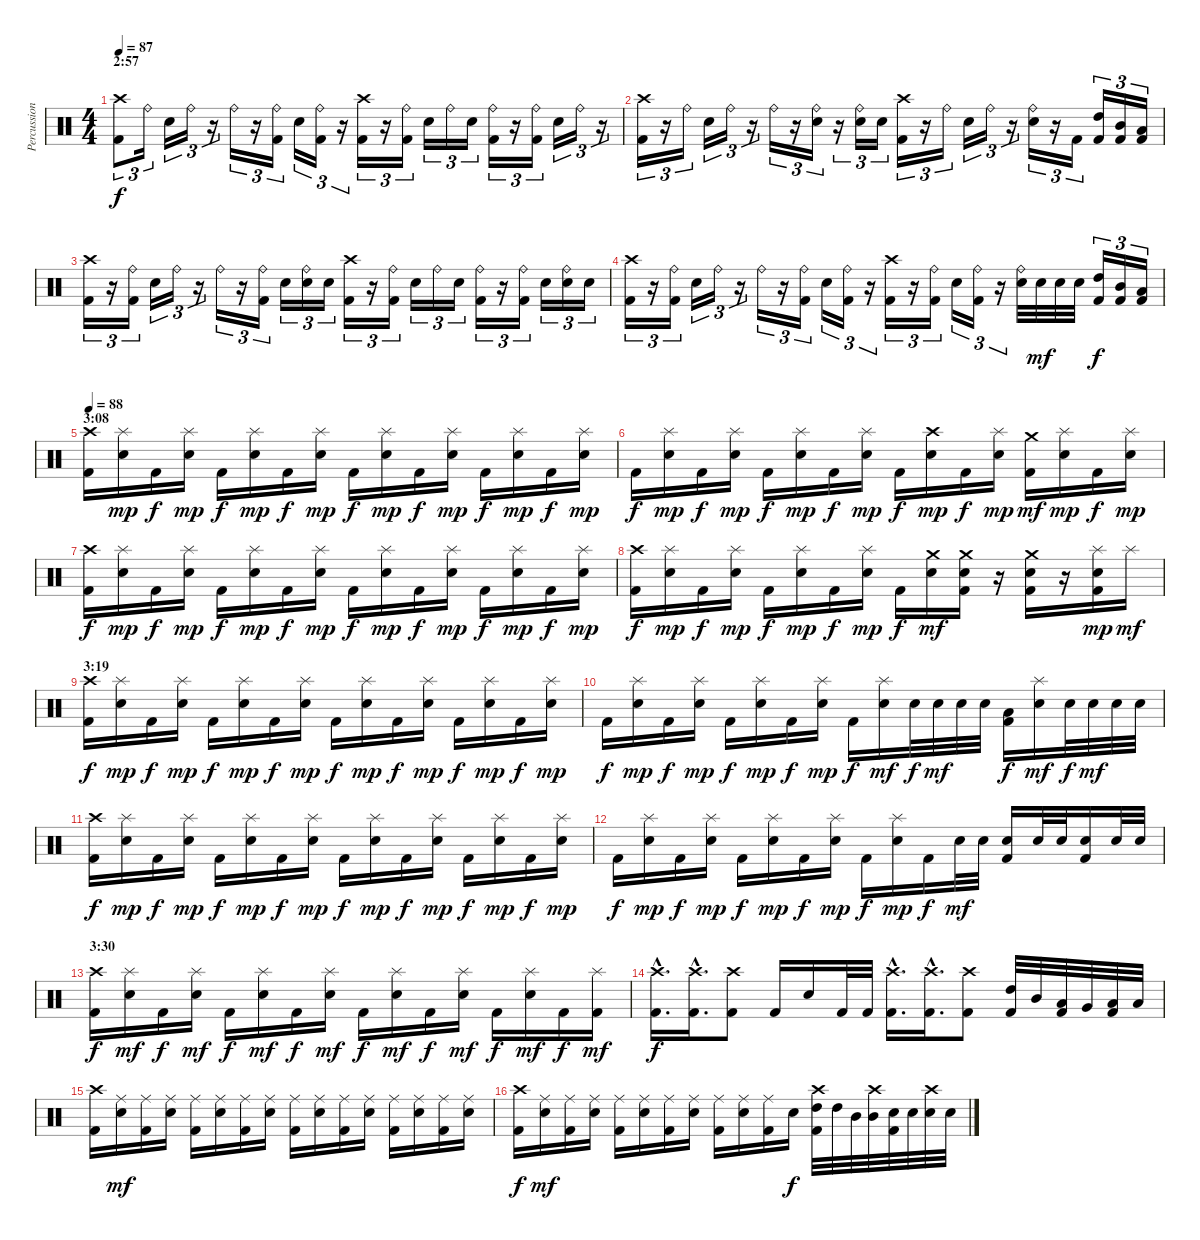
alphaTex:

\track ("Percussion" "Percussion") {instrument percussion}
\staff {score}
\articulation defaults
\ts (4 4)
\section ("" "2:57")
\tempo 87
\clef neutral
\ks c
("Crash high (hit)" "Kick (hit) 2").8{tu (3 2) dy f} "Ride (bell)".16{tu (3 2)} "Snare (hit) 2".16{tu (3 2)} "Ride (bell)".16{tu (3 2)} r.16{tu (3 2)} "Ride (bell)".16{tu (3 2)} r.16{tu (3 2)} ("Ride (bell)" "Kick (hit) 2").16{tu (3 2)} "Snare (hit) 2".16{tu (3 2)} ("Ride (bell)" "Kick (hit) 2").16{tu (3 2)} r.16{tu (3 2)} ("Crash high (hit)" "Kick (hit) 2").16{tu (3 2)} r.16{tu (3 2)} ("Ride (bell)" "Kick (hit) 2").16{tu (3 2)} "Snare (hit) 2".16{tu (3 2)} "Ride (bell)".16{tu (3 2)} "Snare (hit) 2".16{tu (3 2)} ("Ride (bell)" "Kick (hit) 2").16{tu (3 2)} r.16{tu (3 2)} ("Ride (bell)" "Kick (hit) 2").16{tu (3 2)} "Snare (hit) 2".16{tu (3 2)} "Ride (bell)".16{tu (3 2)} r.16{tu (3 2)} |
("Crash high (hit)" "Kick (hit) 2").16{tu (3 2)} r.16{tu (3 2)} "Ride (bell)".16{tu (3 2)} "Snare (hit) 2".16{tu (3 2)} "Ride (bell)".16{tu (3 2)} r.16{tu (3 2)} "Ride (bell)".16{tu (3 2)} r.16{tu (3 2)} ("Ride (bell)" "Snare (hit) 2").16{tu (3 2)} r.16{tu (3 2)} ("Ride (bell)" "Snare (hit) 2").16{tu (3 2)} "Snare (hit) 2".16{tu (3 2)} ("Crash high (hit)" "Kick (hit) 2").16{tu (3 2)} r.16{tu (3 2)} "Ride (bell)".16{tu (3 2)} "Snare (hit) 2".16{tu (3 2)} "Ride (bell)".16{tu (3 2)} r.16{tu (3 2)} ("Ride (bell)" "Snare (hit) 2").16{tu (3 2)} r.16{tu (3 2)} "Kick (hit) 2".16{tu (3 2)} ("High Tom (hit)" "Kick (hit) 2").16{tu (3 2)} ("Mid Tom (hit)" "Kick (hit) 2").16{tu (3 2)} ("Low Tom (hit)" "Kick (hit) 2").16{tu (3 2)} |
("Crash high (hit)" "Kick (hit) 2").16{tu (3 2)} r.16{tu (3 2)} ("Ride (bell)" "Kick (hit) 2").16{tu (3 2)} "Snare (hit) 2".16{tu (3 2)} "Ride (bell)".16{tu (3 2)} r.16{tu (3 2)} "Ride (bell)".16{tu (3 2)} r.16{tu (3 2)} ("Ride (bell)" "Kick (hit) 2").16{tu (3 2)} "Snare (hit) 2".16{tu (3 2)} ("Ride (bell)" "Snare (hit) 2").16{tu (3 2)} "Snare (hit) 2".16{tu (3 2)} ("Crash high (hit)" "Kick (hit) 2").16{tu (3 2)} r.16{tu (3 2)} ("Ride (bell)" "Kick (hit) 2").16{tu (3 2)} "Snare (hit) 2".16{tu (3 2)} "Ride (bell)".16{tu (3 2)} "Snare (hit) 2".16{tu (3 2)} ("Ride (bell)" "Kick (hit) 2").16{tu (3 2)} r.16{tu (3 2)} ("Ride (bell)" "Kick (hit) 2").16{tu (3 2)} "Snare (hit) 2".16{tu (3 2)} ("Ride (bell)" "Snare (hit) 2").16{tu (3 2)} "Snare (hit) 2".16{tu (3 2)} |
("Crash high (hit)" "Kick (hit) 2").16{tu (3 2)} r.16{tu (3 2)} ("Ride (bell)" "Kick (hit) 2").16{tu (3 2)} "Snare (hit) 2".16{tu (3 2)} "Ride (bell)".16{tu (3 2)} r.16{tu (3 2)} "Ride (bell)".16{tu (3 2)} r.16{tu (3 2)} ("Ride (bell)" "Kick (hit) 2").16{tu (3 2)} "Snare (hit) 2".16{tu (3 2)} ("Ride (bell)" "Kick (hit) 2").16{tu (3 2)} r.16{tu (3 2)} ("Crash high (hit)" "Kick (hit) 2").16{tu (3 2)} r.16{tu (3 2)} ("Ride (bell)" "Kick (hit) 2").16{tu (3 2)} "Snare (hit) 2".16{tu (3 2)} ("Ride (bell)" "Kick (hit) 2").16{tu (3 2)} r.16{tu (3 2)} ("Ride (bell)" "Snare (hit) 2").32 "Snare (hit) 2".32{dy mf} "Snare (hit) 2".32 "Snare (hit) 2".32 ("High Tom (hit)" "Kick (hit) 2").16{tu (3 2) dy f} ("Mid Tom (hit)" "Kick (hit) 2").16{tu (3 2)} ("Low Tom (hit)" "Kick (hit) 2").16{tu (3 2)} |
\section ("" "3:08")
\tempo 88
("Crash high (hit)" "Kick (hit) 2").16 ("Splash (hit)" "Snare (hit) 2").16{dy mp} "Kick (hit) 2".16{dy f} ("Splash (hit)" "Snare (hit) 2").16{dy mp} "Kick (hit) 2".16{dy f} ("Splash (hit)" "Snare (hit) 2").16{dy mp} "Kick (hit) 2".16{dy f} ("Splash (hit)" "Snare (hit) 2").16{dy mp} "Kick (hit) 2".16{dy f} ("Splash (hit)" "Snare (hit) 2").16{dy mp} "Kick (hit) 2".16{dy f} ("Splash (hit)" "Snare (hit) 2").16{dy mp} "Kick (hit) 2".16{dy f} ("Splash (hit)" "Snare (hit) 2").16{dy mp} "Kick (hit) 2".16{dy f} ("Splash (hit)" "Snare (hit) 2").16{dy mp} |
"Kick (hit) 2".16{dy f} ("Splash (hit)" "Snare (hit) 2").16{dy mp} "Kick (hit) 2".16{dy f} ("Splash (hit)" "Snare (hit) 2").16{dy mp} "Kick (hit) 2".16{dy f} ("Splash (hit)" "Snare (hit) 2").16{dy mp} "Kick (hit) 2".16{dy f} ("Splash (hit)" "Snare (hit) 2").16{dy mp} "Kick (hit) 2".16{dy f} ("Crash high (hit)" "Snare (hit) 2").16{dy mp} "Kick (hit) 2".16{dy f} ("Splash (hit)" "Snare (hit) 2").16{dy mp} ("Crash medium (hit)" "Kick (hit) 2").16{dy mf} ("Splash (hit)" "Snare (hit) 2").16{dy mp} "Kick (hit) 2".16{dy f} ("Splash (hit)" "Snare (hit) 2").16{dy mp} |
("Crash high (hit)" "Kick (hit) 2").16{dy f} ("Splash (hit)" "Snare (hit) 2").16{dy mp} "Kick (hit) 2".16{dy f} ("Splash (hit)" "Snare (hit) 2").16{dy mp} "Kick (hit) 2".16{dy f} ("Splash (hit)" "Snare (hit) 2").16{dy mp} "Kick (hit) 2".16{dy f} ("Splash (hit)" "Snare (hit) 2").16{dy mp} "Kick (hit) 2".16{dy f} ("Splash (hit)" "Snare (hit) 2").16{dy mp} "Kick (hit) 2".16{dy f} ("Splash (hit)" "Snare (hit) 2").16{dy mp} "Kick (hit) 2".16{dy f} ("Splash (hit)" "Snare (hit) 2").16{dy mp} "Kick (hit) 2".16{dy f} ("Splash (hit)" "Snare (hit) 2").16{dy mp} |
("Crash high (hit)" "Kick (hit) 2").16{dy f} ("Splash (hit)" "Snare (hit) 2").16{dy mp} "Kick (hit) 2".16{dy f} ("Splash (hit)" "Snare (hit) 2").16{dy mp} "Kick (hit) 2".16{dy f} ("Splash (hit)" "Snare (hit) 2").16{dy mp} "Kick (hit) 2".16{dy f} ("Splash (hit)" "Snare (hit) 2").16{dy mp} "Kick (hit) 2".16{dy f} ("Crash medium (hit)" "Snare (hit) 2").16{dy mf} ("Crash medium (hit)" "Snare (hit) 2" "Kick (hit) 2").16 r.16 ("Crash medium (hit)" "Snare (hit) 2" "Kick (hit) 2").16 r.16 ("Splash (hit)" "Snare (hit) 2" "Kick (hit) 2").16{dy mp} "Splash (hit)".16{dy mf} |
\section ("" "3:19")
("Crash high (hit)" "Kick (hit) 2").16{dy f} ("Splash (hit)" "Snare (hit) 2").16{dy mp} "Kick (hit) 2".16{dy f} ("Splash (hit)" "Snare (hit) 2").16{dy mp} "Kick (hit) 2".16{dy f} ("Splash (hit)" "Snare (hit) 2").16{dy mp} "Kick (hit) 2".16{dy f} ("Splash (hit)" "Snare (hit) 2").16{dy mp} "Kick (hit) 2".16{dy f} ("Splash (hit)" "Snare (hit) 2").16{dy mp} "Kick (hit) 2".16{dy f} ("Splash (hit)" "Snare (hit) 2").16{dy mp} "Kick (hit) 2".16{dy f} ("Splash (hit)" "Snare (hit) 2").16{dy mp} "Kick (hit) 2".16{dy f} ("Splash (hit)" "Snare (hit) 2").16{dy mp} |
"Kick (hit) 2".16{dy f} ("Splash (hit)" "Snare (hit) 2").16{dy mp} "Kick (hit) 2".16{dy f} ("Splash (hit)" "Snare (hit) 2").16{dy mp} "Kick (hit) 2".16{dy f} ("Splash (hit)" "Snare (hit) 2").16{dy mp} "Kick (hit) 2".16{dy f} ("Splash (hit)" "Snare (hit) 2").16{dy mp} "Kick (hit) 2".16{dy f} ("Splash (hit)" "Snare (hit) 2").16{dy mf} "Snare (hit) 2".32{dy f} "Snare (hit) 2".32{dy mf} "Snare (hit) 2".32 "Snare (hit) 2".32 ("Low Tom (hit)" "Kick (hit) 2").16{dy f} ("Splash (hit)" "Snare (hit) 2").16{dy mf} "Snare (hit) 2".32{dy f} "Snare (hit) 2".32{dy mf} "Snare (hit) 2".32 "Snare (hit) 2".32 |
("Crash high (hit)" "Kick (hit) 2").16{dy f} ("Splash (hit)" "Snare (hit) 2").16{dy mp} "Kick (hit) 2".16{dy f} ("Splash (hit)" "Snare (hit) 2").16{dy mp} "Kick (hit) 2".16{dy f} ("Splash (hit)" "Snare (hit) 2").16{dy mp} "Kick (hit) 2".16{dy f} ("Splash (hit)" "Snare (hit) 2").16{dy mp} "Kick (hit) 2".16{dy f} ("Splash (hit)" "Snare (hit) 2").16{dy mp} "Kick (hit) 2".16{dy f} ("Splash (hit)" "Snare (hit) 2").16{dy mp} "Kick (hit) 2".16{dy f} ("Splash (hit)" "Snare (hit) 2").16{dy mp} "Kick (hit) 2".16{dy f} ("Splash (hit)" "Snare (hit) 2").16{dy mp} |
"Kick (hit) 2".16{dy f} ("Splash (hit)" "Snare (hit) 2").16{dy mp} "Kick (hit) 2".16{dy f} ("Splash (hit)" "Snare (hit) 2").16{dy mp} "Kick (hit) 2".16{dy f} ("Splash (hit)" "Snare (hit) 2").16{dy mp} "Kick (hit) 2".16{dy f} ("Splash (hit)" "Snare (hit) 2").16{dy mp} "Kick (hit) 2".16{dy f} ("Splash (hit)" "Snare (hit) 2").16{dy mp} "Kick (hit) 2".16{dy f} "Snare (hit) 2".32{dy mf} "Snare (hit) 2".32 ("Snare (hit) 2" "Kick (hit) 2").16 "Snare (hit) 2".32 "Snare (hit) 2".32 ("Snare (hit) 2" "Kick (hit) 2").16 "Snare (hit) 2".32 "Snare (hit) 2".32 |
\section ("" "3:30")
("Crash high (hit)" "Kick (hit) 2").16{dy f} ("Splash (hit)" "Snare (hit) 2").16{dy mf} "Kick (hit) 2".16{dy f} ("Splash (hit)" "Snare (hit) 2").16{dy mf} "Kick (hit) 2".16{dy f} ("Splash (hit)" "Snare (hit) 2").16{dy mf} "Kick (hit) 2".16{dy f} ("Splash (hit)" "Snare (hit) 2").16{dy mf} "Kick (hit) 2".16{dy f} ("Splash (hit)" "Snare (hit) 2").16{dy mf} "Kick (hit) 2".16{dy f} ("Splash (hit)" "Snare (hit) 2").16{dy mf} "Kick (hit) 2".16{dy f} ("Splash (hit)" "Snare (hit) 2").16{dy mf} "Kick (hit) 2".16{dy f} ("Splash (hit)" "Kick (hit) 2").16{dy mf} |
("Crash high (hit)"{hac} "Kick (hit) 2"{hac}).16{d dy f} ("Crash high (hit)"{hac} "Kick (hit) 2"{hac}).16{d} ("Crash high (hit)" "Kick (hit) 2").8 "Kick (hit) 2".16 "Snare (hit) 2".16 "Kick (hit) 2".32 "Kick (hit) 2".32 ("Crash high (hit)"{hac} "Kick (hit) 2"{hac}).16{d} ("Crash high (hit)"{hac} "Kick (hit) 2"{hac}).16{d} ("Crash high (hit)" "Kick (hit) 2").8 ("High Tom (hit)" "Kick (hit) 2").32 "Mid Tom (hit)".32 ("Low Tom (hit)" "Kick (hit) 2").32 "Very Low Tom (hit)".32 ("Low Floor Tom (hit)" "Kick (hit) 2").32 "Low Floor Tom (hit)".32 |
("Crash high (hit)" "Kick (hit) 2").16 ("Ride (middle)" "Snare (hit) 2").16{dy mf} ("Ride (middle)" "Kick (hit) 2").16 ("Ride (middle)" "Snare (hit) 2").16 ("Ride (middle)" "Kick (hit) 2").16 ("Ride (middle)" "Snare (hit) 2").16 ("Ride (middle)" "Kick (hit) 2").16 ("Ride (middle)" "Snare (hit) 2").16 ("Ride (middle)" "Kick (hit) 2").16 ("Ride (middle)" "Snare (hit) 2").16 ("Ride (middle)" "Kick (hit) 2").16 ("Ride (middle)" "Snare (hit) 2").16 ("Ride (middle)" "Kick (hit) 2").16 ("Ride (middle)" "Snare (hit) 2").16 ("Ride (middle)" "Kick (hit) 2").16 ("Ride (middle)" "Snare (hit) 2").16 |
("Crash high (hit)" "Kick (hit) 2").16{dy f} ("Ride (middle)" "Snare (hit) 2").16{dy mf} ("Ride (middle)" "Kick (hit) 2").16 ("Ride (middle)" "Snare (hit) 2").16 ("Ride (middle)" "Kick (hit) 2").16 ("Ride (middle)" "Snare (hit) 2").16 ("Ride (middle)" "Kick (hit) 2").16 ("Ride (middle)" "Snare (hit) 2").16 ("Ride (middle)" "Kick (hit) 2").16 ("Ride (middle)" "Snare (hit) 2").16 ("Ride (middle)" "Kick (hit) 2").16 "Snare (hit) 2".16{dy f} ("Crash high (hit)" "High Tom (hit)" "Kick (hit) 2").32 "High Tom (hit)".32 "Mid Tom (hit)".32 ("Crash high (hit)" "Mid Tom (hit)").32 ("Snare (hit) 2" "Kick (hit) 2").32 "Snare (hit) 2".32 ("Crash high (hit)" "Snare (hit) 2").32 "Snare (hit) 2".32
